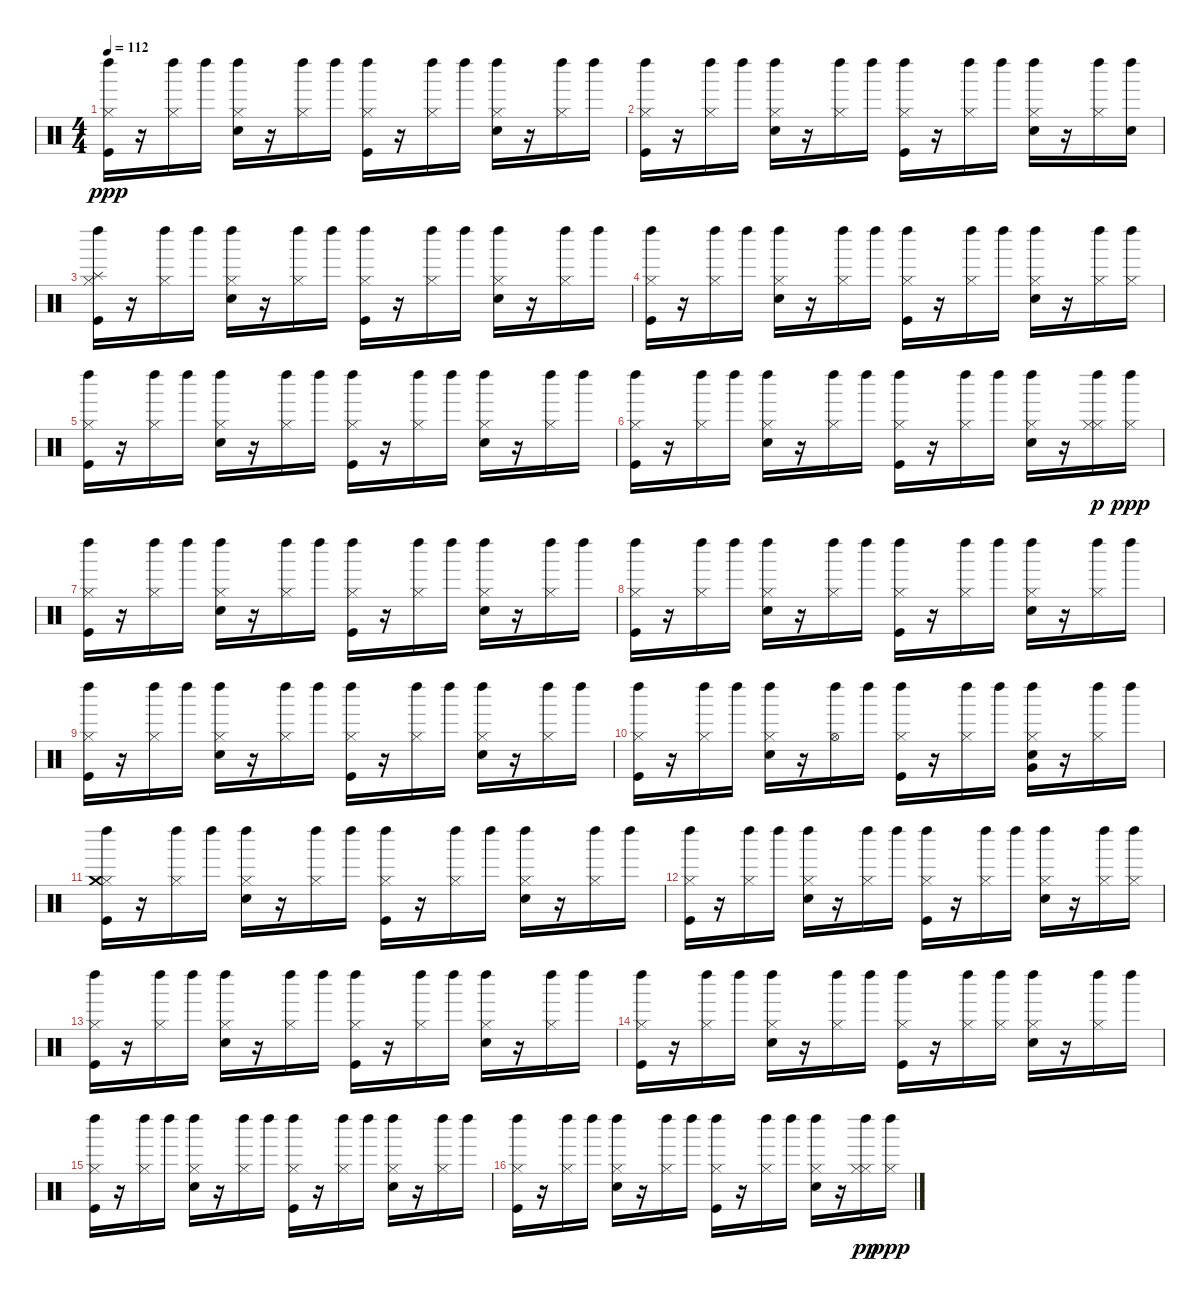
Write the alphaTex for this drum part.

\track "" {instrument percussion}
\staff {score}
\articulation defaults
\ts (4 4)
\tempo 112
\clef neutral
\ks c
("Kick (hit)" "Hi-Hat (closed)" "Left Maraca (hit)").16{dy ppp} r.16 ("Hi-Hat (closed)" "Left Maraca (hit)").16 "Left Maraca (hit)".16 ("Electric Snare (hit)" "Hi-Hat (closed)" "Left Maraca (hit)").16 r.16 ("Hi-Hat (closed)" "Left Maraca (hit)").16 "Left Maraca (hit)".16 ("Kick (hit)" "Hi-Hat (closed)" "Left Maraca (hit)").16 r.16 ("Hi-Hat (closed)" "Left Maraca (hit)").16 "Left Maraca (hit)".16 ("Electric Snare (hit)" "Hi-Hat (closed)" "Left Maraca (hit)").16 r.16 ("Hi-Hat (closed)" "Left Maraca (hit)").16 "Left Maraca (hit)".16 |
("Kick (hit)" "Hi-Hat (closed)" "Left Maraca (hit)").16 r.16 ("Hi-Hat (closed)" "Left Maraca (hit)").16 "Left Maraca (hit)".16 ("Electric Snare (hit)" "Hi-Hat (closed)" "Left Maraca (hit)").16 r.16 ("Hi-Hat (closed)" "Left Maraca (hit)").16 "Left Maraca (hit)".16 ("Kick (hit)" "Hi-Hat (closed)" "Left Maraca (hit)").16 r.16 ("Hi-Hat (closed)" "Left Maraca (hit)").16 "Left Maraca (hit)".16 ("Electric Snare (hit)" "Hi-Hat (closed)" "Left Maraca (hit)").16 r.16 ("Hi-Hat (closed)" "Left Maraca (hit)").16 ("Electric Snare (hit)" "Left Maraca (hit)").16 |
("Kick (hit)" "Hi-Hat (closed)" "Splash (hit)" "Left Maraca (hit)").16 r.16 ("Hi-Hat (closed)" "Left Maraca (hit)").16 "Left Maraca (hit)".16 ("Electric Snare (hit)" "Hi-Hat (closed)" "Left Maraca (hit)").16 r.16 ("Hi-Hat (closed)" "Left Maraca (hit)").16 "Left Maraca (hit)".16 ("Kick (hit)" "Hi-Hat (closed)" "Left Maraca (hit)").16 r.16 ("Hi-Hat (closed)" "Left Maraca (hit)").16 "Left Maraca (hit)".16 ("Electric Snare (hit)" "Hi-Hat (closed)" "Left Maraca (hit)").16 r.16 ("Hi-Hat (closed)" "Left Maraca (hit)").16 "Left Maraca (hit)".16 |
("Kick (hit)" "Hi-Hat (closed)" "Left Maraca (hit)").16 r.16 ("Hi-Hat (closed)" "Left Maraca (hit)").16 "Left Maraca (hit)".16 ("Electric Snare (hit)" "Hi-Hat (closed)" "Left Maraca (hit)").16 r.16 ("Hi-Hat (closed)" "Left Maraca (hit)").16 "Left Maraca (hit)".16 ("Kick (hit)" "Hi-Hat (closed)" "Left Maraca (hit)").16 r.16 ("Hi-Hat (closed)" "Left Maraca (hit)").16 "Left Maraca (hit)".16 ("Electric Snare (hit)" "Hi-Hat (closed)" "Left Maraca (hit)").16 r.16 ("Hi-Hat (closed)" "Left Maraca (hit)").16 ("Hi-Hat (closed)" "Left Maraca (hit)").16 |
("Kick (hit)" "Hi-Hat (closed)" "Left Maraca (hit)").16 r.16 ("Hi-Hat (closed)" "Left Maraca (hit)").16 "Left Maraca (hit)".16 ("Electric Snare (hit)" "Hi-Hat (closed)" "Left Maraca (hit)").16 r.16 ("Hi-Hat (closed)" "Left Maraca (hit)").16 "Left Maraca (hit)".16 ("Kick (hit)" "Hi-Hat (closed)" "Left Maraca (hit)").16 r.16 ("Hi-Hat (closed)" "Left Maraca (hit)").16 "Left Maraca (hit)".16 ("Electric Snare (hit)" "Hi-Hat (closed)" "Left Maraca (hit)").16 r.16 ("Hi-Hat (closed)" "Left Maraca (hit)").16 "Left Maraca (hit)".16 |
("Kick (hit)" "Hi-Hat (closed)" "Left Maraca (hit)").16 r.16 ("Hi-Hat (closed)" "Left Maraca (hit)").16 "Left Maraca (hit)".16 ("Electric Snare (hit)" "Hi-Hat (closed)" "Left Maraca (hit)").16 r.16 ("Hi-Hat (closed)" "Left Maraca (hit)").16 "Left Maraca (hit)".16 ("Kick (hit)" "Hi-Hat (closed)" "Left Maraca (hit)").16 r.16 ("Hi-Hat (closed)" "Left Maraca (hit)").16 "Left Maraca (hit)".16 ("Electric Snare (hit)" "Hi-Hat (closed)" "Left Maraca (hit)").16 r.16 ("Hi-Hat (closed)" "Left Maraca (hit)" "Hi-Hat (closed)").16{dy p} ("Hi-Hat (closed)" "Left Maraca (hit)").16{dy ppp} |
("Kick (hit)" "Hi-Hat (closed)" "Left Maraca (hit)").16 r.16 ("Hi-Hat (closed)" "Left Maraca (hit)").16 "Left Maraca (hit)".16 ("Electric Snare (hit)" "Hi-Hat (closed)" "Left Maraca (hit)").16 r.16 ("Hi-Hat (closed)" "Left Maraca (hit)").16 "Left Maraca (hit)".16 ("Kick (hit)" "Hi-Hat (closed)" "Left Maraca (hit)").16 r.16 ("Hi-Hat (closed)" "Left Maraca (hit)").16 "Left Maraca (hit)".16 ("Electric Snare (hit)" "Hi-Hat (closed)" "Left Maraca (hit)").16 r.16 ("Hi-Hat (closed)" "Left Maraca (hit)").16 "Left Maraca (hit)".16 |
("Kick (hit)" "Hi-Hat (closed)" "Left Maraca (hit)").16 r.16 ("Hi-Hat (closed)" "Left Maraca (hit)").16 "Left Maraca (hit)".16 ("Electric Snare (hit)" "Hi-Hat (closed)" "Left Maraca (hit)").16 r.16 ("Hi-Hat (closed)" "Left Maraca (hit)").16 "Left Maraca (hit)".16 ("Kick (hit)" "Hi-Hat (closed)" "Left Maraca (hit)").16 r.16 ("Hi-Hat (closed)" "Left Maraca (hit)").16 "Left Maraca (hit)".16 ("Electric Snare (hit)" "Hi-Hat (closed)" "Left Maraca (hit)").16 r.16 ("Hi-Hat (closed)" "Left Maraca (hit)").16 "Left Maraca (hit)".16 |
("Kick (hit)" "Hi-Hat (closed)" "Left Maraca (hit)").16 r.16 ("Hi-Hat (closed)" "Left Maraca (hit)").16 "Left Maraca (hit)".16 ("Electric Snare (hit)" "Hi-Hat (closed)" "Left Maraca (hit)").16 r.16 ("Hi-Hat (closed)" "Left Maraca (hit)").16 "Left Maraca (hit)".16 ("Kick (hit)" "Hi-Hat (closed)" "Left Maraca (hit)").16 r.16 ("Hi-Hat (closed)" "Left Maraca (hit)").16 "Left Maraca (hit)".16 ("Electric Snare (hit)" "Hi-Hat (closed)" "Left Maraca (hit)").16 r.16 ("Hi-Hat (closed)" "Left Maraca (hit)").16 "Left Maraca (hit)".16 |
("Kick (hit)" "Hi-Hat (closed)" "Left Maraca (hit)").16 r.16 ("Hi-Hat (closed)" "Left Maraca (hit)").16 "Left Maraca (hit)".16 ("Electric Snare (hit)" "Hi-Hat (closed)" "Left Maraca (hit)").16 r.16 ("Hi-Hat (open)" "Left Maraca (hit)").16 "Left Maraca (hit)".16 ("Kick (hit)" "Hi-Hat (closed)" "Left Maraca (hit)").16 r.16 ("Hi-Hat (closed)" "Left Maraca (hit)").16 "Left Maraca (hit)".16 ("Electric Snare (hit)" "Hi-Hat (closed)" "Very Low Tom (hit)" "Left Maraca (hit)").16 r.16 ("Hi-Hat (closed)" "Left Maraca (hit)").16 "Left Maraca (hit)".16 |
("Kick (hit)" "Hi-Hat (closed)" "Crash medium (hit)" "Left Maraca (hit)").16 r.16 ("Hi-Hat (closed)" "Left Maraca (hit)").16 "Left Maraca (hit)".16 ("Electric Snare (hit)" "Hi-Hat (closed)" "Left Maraca (hit)").16 r.16 ("Hi-Hat (closed)" "Left Maraca (hit)").16 "Left Maraca (hit)".16 ("Kick (hit)" "Hi-Hat (closed)" "Left Maraca (hit)").16 r.16 ("Hi-Hat (closed)" "Left Maraca (hit)").16 "Left Maraca (hit)".16 ("Electric Snare (hit)" "Hi-Hat (closed)" "Left Maraca (hit)").16 r.16 ("Hi-Hat (closed)" "Left Maraca (hit)").16 "Left Maraca (hit)".16 |
("Kick (hit)" "Hi-Hat (closed)" "Left Maraca (hit)").16 r.16 ("Hi-Hat (closed)" "Left Maraca (hit)").16 "Left Maraca (hit)".16 ("Electric Snare (hit)" "Hi-Hat (closed)" "Left Maraca (hit)").16 r.16 ("Hi-Hat (closed)" "Left Maraca (hit)").16 "Left Maraca (hit)".16 ("Kick (hit)" "Hi-Hat (closed)" "Left Maraca (hit)").16 r.16 ("Hi-Hat (closed)" "Left Maraca (hit)").16 "Left Maraca (hit)".16 ("Electric Snare (hit)" "Hi-Hat (closed)" "Left Maraca (hit)").16 r.16 ("Hi-Hat (closed)" "Left Maraca (hit)").16 ("Hi-Hat (closed)" "Left Maraca (hit)").16 |
("Kick (hit)" "Hi-Hat (closed)" "Left Maraca (hit)").16 r.16 ("Hi-Hat (closed)" "Left Maraca (hit)").16 "Left Maraca (hit)".16 ("Electric Snare (hit)" "Hi-Hat (closed)" "Left Maraca (hit)").16 r.16 ("Hi-Hat (closed)" "Left Maraca (hit)").16 "Left Maraca (hit)".16 ("Kick (hit)" "Hi-Hat (closed)" "Left Maraca (hit)").16 r.16 ("Hi-Hat (closed)" "Left Maraca (hit)").16 "Left Maraca (hit)".16 ("Electric Snare (hit)" "Hi-Hat (closed)" "Left Maraca (hit)").16 r.16 ("Hi-Hat (closed)" "Left Maraca (hit)").16 "Left Maraca (hit)".16 |
("Kick (hit)" "Hi-Hat (closed)" "Left Maraca (hit)").16 r.16 ("Hi-Hat (closed)" "Left Maraca (hit)").16 "Left Maraca (hit)".16 ("Electric Snare (hit)" "Hi-Hat (closed)" "Left Maraca (hit)").16 r.16 ("Hi-Hat (closed)" "Left Maraca (hit)").16 "Left Maraca (hit)".16 ("Kick (hit)" "Hi-Hat (closed)" "Left Maraca (hit)").16 r.16 ("Hi-Hat (closed)" "Left Maraca (hit)").16 ("Hi-Hat (closed)" "Left Maraca (hit)").16 ("Electric Snare (hit)" "Hi-Hat (closed)" "Left Maraca (hit)").16 r.16 ("Hi-Hat (closed)" "Left Maraca (hit)").16 "Left Maraca (hit)".16 |
("Kick (hit)" "Hi-Hat (closed)" "Left Maraca (hit)").16 r.16 ("Hi-Hat (closed)" "Left Maraca (hit)").16 "Left Maraca (hit)".16 ("Electric Snare (hit)" "Hi-Hat (closed)" "Left Maraca (hit)").16 r.16 ("Hi-Hat (closed)" "Left Maraca (hit)").16 "Left Maraca (hit)".16 ("Kick (hit)" "Hi-Hat (closed)" "Left Maraca (hit)").16 r.16 ("Hi-Hat (closed)" "Left Maraca (hit)").16 "Left Maraca (hit)".16 ("Electric Snare (hit)" "Hi-Hat (closed)" "Left Maraca (hit)").16 r.16 ("Hi-Hat (closed)" "Left Maraca (hit)").16 "Left Maraca (hit)".16 |
("Kick (hit)" "Hi-Hat (closed)" "Left Maraca (hit)").16 r.16 ("Hi-Hat (closed)" "Left Maraca (hit)").16 "Left Maraca (hit)".16 ("Electric Snare (hit)" "Hi-Hat (closed)" "Left Maraca (hit)").16 r.16 ("Hi-Hat (closed)" "Left Maraca (hit)").16 "Left Maraca (hit)".16 ("Kick (hit)" "Hi-Hat (closed)" "Left Maraca (hit)").16 r.16 ("Hi-Hat (closed)" "Left Maraca (hit)").16 "Left Maraca (hit)".16 ("Electric Snare (hit)" "Hi-Hat (closed)" "Left Maraca (hit)").16 r.16 ("Hi-Hat (closed)" "Left Maraca (hit)" "Hi-Hat (closed)").16{dy pp} ("Hi-Hat (closed)" "Left Maraca (hit)").16{dy ppp}
